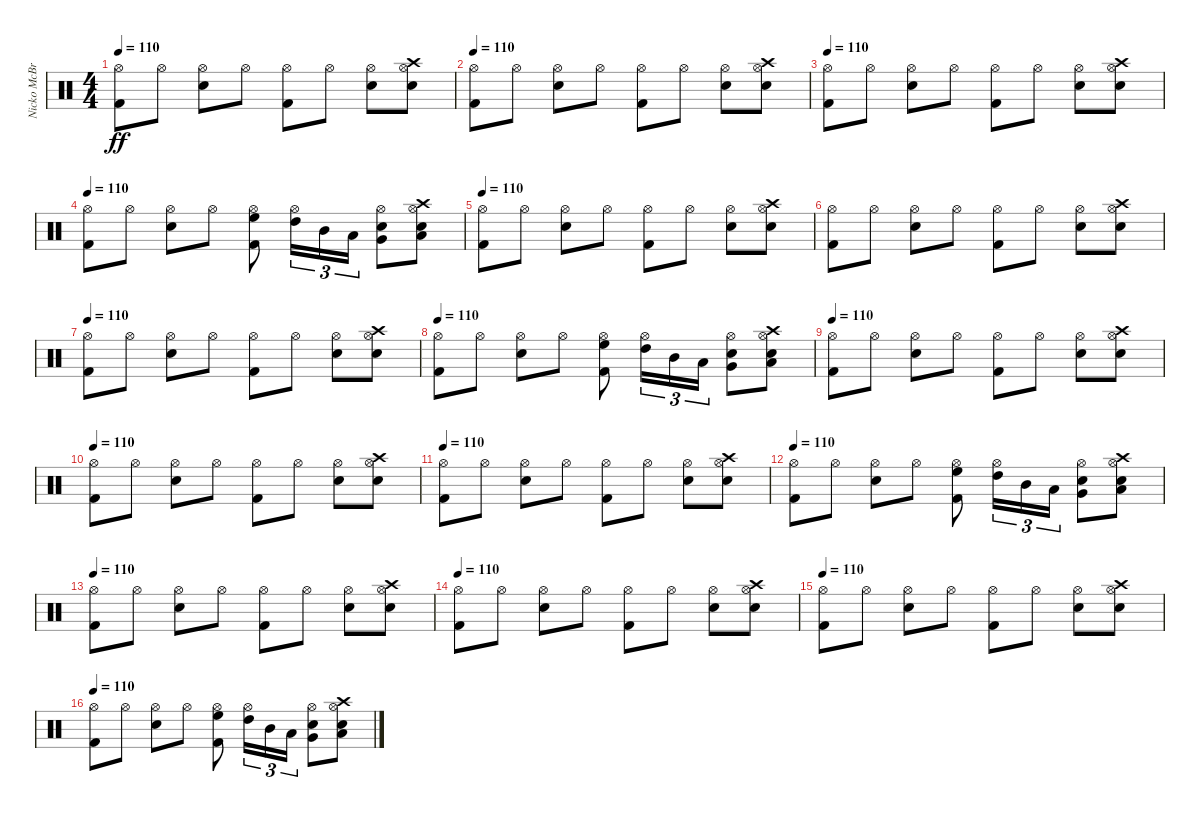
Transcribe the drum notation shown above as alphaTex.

\track ("Nicko McBrain" "Nicko McBr") {instrument percussion}
\staff {score}
\articulation defaults
\ts (4 4)
\tempo 110
\clef neutral
\ks c
("Kick (hit) 2" "Hi-Hat (open)").8{dy ff} "Hi-Hat (open)".8 ("Snare (hit) 2" "Hi-Hat (open)").8 "Hi-Hat (open)".8 ("Kick (hit) 2" "Hi-Hat (open)").8 "Hi-Hat (open)".8 ("Snare (hit) 2" "Hi-Hat (open)").8 ("Snare (hit) 2" "Hi-Hat (open)" "Crash high (hit)").8 |
\tempo 110
("Kick (hit) 2" "Hi-Hat (open)").8 "Hi-Hat (open)".8 ("Snare (hit) 2" "Hi-Hat (open)").8 "Hi-Hat (open)".8 ("Kick (hit) 2" "Hi-Hat (open)").8 "Hi-Hat (open)".8 ("Snare (hit) 2" "Hi-Hat (open)").8 ("Snare (hit) 2" "Hi-Hat (open)" "Crash high (hit)").8 |
\tempo 110
("Kick (hit) 2" "Hi-Hat (open)").8 "Hi-Hat (open)".8 ("Snare (hit) 2" "Hi-Hat (open)").8 "Hi-Hat (open)".8 ("Kick (hit) 2" "Hi-Hat (open)").8 "Hi-Hat (open)".8 ("Snare (hit) 2" "Hi-Hat (open)").8 ("Snare (hit) 2" "Hi-Hat (open)" "Crash high (hit)").8 |
\tempo 110
("Kick (hit) 2" "Hi-Hat (open)").8 "Hi-Hat (open)".8 ("Snare (hit) 2" "Hi-Hat (open)").8 "Hi-Hat (open)".8 ("Kick (hit) 2" "Hi-Hat (open)" "High Floor Tom (hit)").8 ("Hi-Hat (open)" "High Tom (hit)").16{tu (3 2)} "Mid Tom (hit)".16{tu (3 2)} "Low Tom (hit)".16{tu (3 2)} ("Snare (hit) 2" "Very Low Tom (hit)" "Hi-Hat (open)").8 ("Snare (hit) 2" "Low Floor Tom (hit)" "Hi-Hat (open)" "Crash high (hit)").8 |
\tempo 110
("Kick (hit) 2" "Hi-Hat (open)").8 "Hi-Hat (open)".8 ("Snare (hit) 2" "Hi-Hat (open)").8 "Hi-Hat (open)".8 ("Kick (hit) 2" "Hi-Hat (open)").8 "Hi-Hat (open)".8 ("Snare (hit) 2" "Hi-Hat (open)").8 ("Snare (hit) 2" "Hi-Hat (open)" "Crash high (hit)").8 |
("Kick (hit) 2" "Hi-Hat (open)").8 "Hi-Hat (open)".8 ("Snare (hit) 2" "Hi-Hat (open)").8 "Hi-Hat (open)".8 ("Kick (hit) 2" "Hi-Hat (open)").8 "Hi-Hat (open)".8 ("Snare (hit) 2" "Hi-Hat (open)").8 ("Snare (hit) 2" "Hi-Hat (open)" "Crash high (hit)").8 |
\tempo 110
("Kick (hit) 2" "Hi-Hat (open)").8 "Hi-Hat (open)".8 ("Snare (hit) 2" "Hi-Hat (open)").8 "Hi-Hat (open)".8 ("Kick (hit) 2" "Hi-Hat (open)").8 "Hi-Hat (open)".8 ("Snare (hit) 2" "Hi-Hat (open)").8 ("Snare (hit) 2" "Hi-Hat (open)" "Crash high (hit)").8 |
\tempo 110
("Kick (hit) 2" "Hi-Hat (open)").8 "Hi-Hat (open)".8 ("Snare (hit) 2" "Hi-Hat (open)").8 "Hi-Hat (open)".8 ("Kick (hit) 2" "Hi-Hat (open)" "High Floor Tom (hit)").8 ("Hi-Hat (open)" "High Tom (hit)").16{tu (3 2)} "Mid Tom (hit)".16{tu (3 2)} "Low Tom (hit)".16{tu (3 2)} ("Snare (hit) 2" "Very Low Tom (hit)" "Hi-Hat (open)").8 ("Snare (hit) 2" "Low Floor Tom (hit)" "Hi-Hat (open)" "Crash high (hit)").8 |
\tempo 110
("Kick (hit) 2" "Hi-Hat (open)").8 "Hi-Hat (open)".8 ("Snare (hit) 2" "Hi-Hat (open)").8 "Hi-Hat (open)".8 ("Kick (hit) 2" "Hi-Hat (open)").8 "Hi-Hat (open)".8 ("Snare (hit) 2" "Hi-Hat (open)").8 ("Snare (hit) 2" "Hi-Hat (open)" "Crash high (hit)").8 |
\tempo 110
("Kick (hit) 2" "Hi-Hat (open)").8 "Hi-Hat (open)".8 ("Snare (hit) 2" "Hi-Hat (open)").8 "Hi-Hat (open)".8 ("Kick (hit) 2" "Hi-Hat (open)").8 "Hi-Hat (open)".8 ("Snare (hit) 2" "Hi-Hat (open)").8 ("Snare (hit) 2" "Hi-Hat (open)" "Crash high (hit)").8 |
\tempo 110
("Kick (hit) 2" "Hi-Hat (open)").8 "Hi-Hat (open)".8 ("Snare (hit) 2" "Hi-Hat (open)").8 "Hi-Hat (open)".8 ("Kick (hit) 2" "Hi-Hat (open)").8 "Hi-Hat (open)".8 ("Snare (hit) 2" "Hi-Hat (open)").8 ("Snare (hit) 2" "Hi-Hat (open)" "Crash high (hit)").8 |
\tempo 110
("Kick (hit) 2" "Hi-Hat (open)").8 "Hi-Hat (open)".8 ("Snare (hit) 2" "Hi-Hat (open)").8 "Hi-Hat (open)".8 ("Kick (hit) 2" "Hi-Hat (open)" "High Floor Tom (hit)").8 ("Hi-Hat (open)" "High Tom (hit)").16{tu (3 2)} "Mid Tom (hit)".16{tu (3 2)} "Low Tom (hit)".16{tu (3 2)} ("Snare (hit) 2" "Very Low Tom (hit)" "Hi-Hat (open)").8 ("Snare (hit) 2" "Low Floor Tom (hit)" "Hi-Hat (open)" "Crash high (hit)").8 |
\tempo 110
("Kick (hit) 2" "Hi-Hat (open)").8 "Hi-Hat (open)".8 ("Snare (hit) 2" "Hi-Hat (open)").8 "Hi-Hat (open)".8 ("Kick (hit) 2" "Hi-Hat (open)").8 "Hi-Hat (open)".8 ("Snare (hit) 2" "Hi-Hat (open)").8 ("Snare (hit) 2" "Hi-Hat (open)" "Crash high (hit)").8 |
\tempo 110
("Kick (hit) 2" "Hi-Hat (open)").8 "Hi-Hat (open)".8 ("Snare (hit) 2" "Hi-Hat (open)").8 "Hi-Hat (open)".8 ("Kick (hit) 2" "Hi-Hat (open)").8 "Hi-Hat (open)".8 ("Snare (hit) 2" "Hi-Hat (open)").8 ("Snare (hit) 2" "Hi-Hat (open)" "Crash high (hit)").8 |
\tempo 110
("Kick (hit) 2" "Hi-Hat (open)").8 "Hi-Hat (open)".8 ("Snare (hit) 2" "Hi-Hat (open)").8 "Hi-Hat (open)".8 ("Kick (hit) 2" "Hi-Hat (open)").8 "Hi-Hat (open)".8 ("Snare (hit) 2" "Hi-Hat (open)").8 ("Snare (hit) 2" "Hi-Hat (open)" "Crash high (hit)").8 |
\tempo 110
("Kick (hit) 2" "Hi-Hat (open)").8 "Hi-Hat (open)".8 ("Snare (hit) 2" "Hi-Hat (open)").8 "Hi-Hat (open)".8 ("Kick (hit) 2" "Hi-Hat (open)" "High Floor Tom (hit)").8 ("Hi-Hat (open)" "High Tom (hit)").16{tu (3 2)} "Mid Tom (hit)".16{tu (3 2)} "Low Tom (hit)".16{tu (3 2)} ("Snare (hit) 2" "Very Low Tom (hit)" "Hi-Hat (open)").8 ("Snare (hit) 2" "Low Floor Tom (hit)" "Hi-Hat (open)" "Crash high (hit)").8
